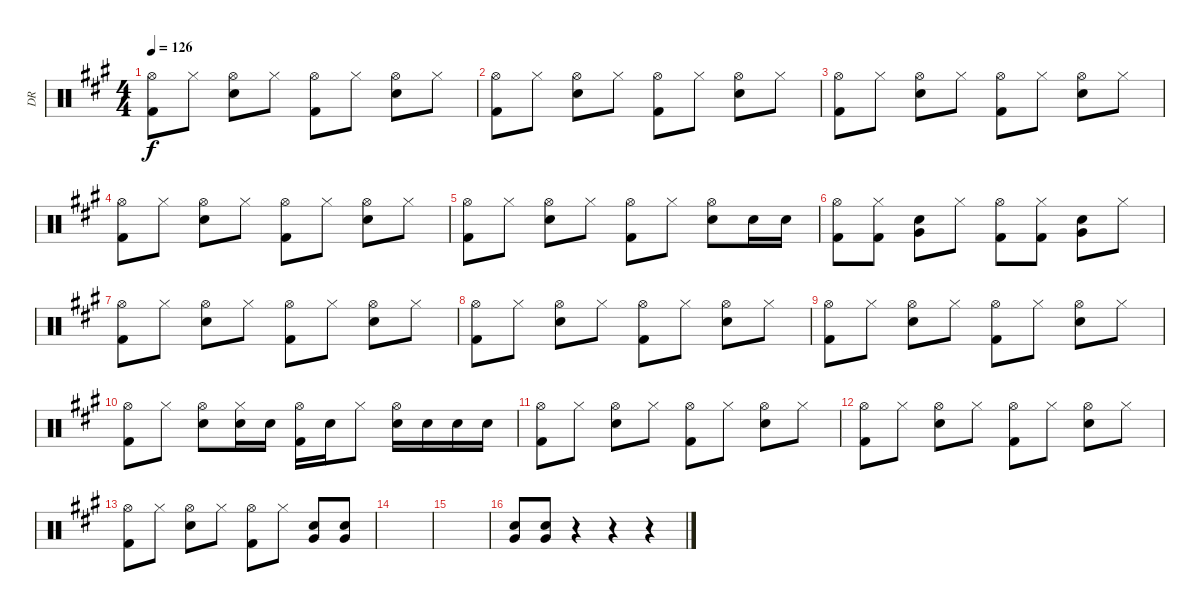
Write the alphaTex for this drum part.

\track ("DR" "DR") {instrument percussion}
\staff {score}
\articulation defaults
\ts (4 4)
\tempo 126
\clef neutral
\ks f#minor
("Hi-Hat (open)" "Kick (hit) 2").8{dy f} "Hi-Hat (closed)".8 ("Hi-Hat (open)" "Electric Snare (hit)").8 "Hi-Hat (closed)".8 ("Hi-Hat (open)" "Kick (hit) 2").8 "Hi-Hat (closed)".8 ("Hi-Hat (open)" "Electric Snare (hit)").8 "Hi-Hat (closed)".8 |
("Hi-Hat (open)" "Kick (hit) 2").8 "Hi-Hat (closed)".8 ("Hi-Hat (open)" "Electric Snare (hit)").8 "Hi-Hat (closed)".8 ("Hi-Hat (open)" "Kick (hit) 2").8 "Hi-Hat (closed)".8 ("Hi-Hat (open)" "Electric Snare (hit)").8 "Hi-Hat (closed)".8 |
("Hi-Hat (open)" "Kick (hit) 2").8 "Hi-Hat (closed)".8 ("Hi-Hat (open)" "Electric Snare (hit)").8 "Hi-Hat (closed)".8 ("Hi-Hat (open)" "Kick (hit) 2").8 "Hi-Hat (closed)".8 ("Hi-Hat (open)" "Electric Snare (hit)").8 "Hi-Hat (closed)".8 |
("Hi-Hat (open)" "Kick (hit) 2").8 "Hi-Hat (closed)".8 ("Hi-Hat (open)" "Electric Snare (hit)").8 "Hi-Hat (closed)".8 ("Hi-Hat (open)" "Kick (hit) 2").8 "Hi-Hat (closed)".8 ("Hi-Hat (open)" "Electric Snare (hit)").8 "Hi-Hat (closed)".8 |
("Hi-Hat (open)" "Kick (hit) 2").8 "Hi-Hat (closed)".8 ("Hi-Hat (open)" "Electric Snare (hit)").8 "Hi-Hat (closed)".8 ("Hi-Hat (open)" "Kick (hit) 2").8 "Hi-Hat (closed)".8 ("Hi-Hat (open)" "Electric Snare (hit)").8 "Electric Snare (hit)".16 "Electric Snare (hit)".16 |
("Hi-Hat (open)" "Kick (hit) 2").8 ("Hi-Hat (closed)" "Kick (hit) 2").8 ("Very Low Tom (hit)" "Electric Snare (hit)").8 "Hi-Hat (closed)".8 ("Hi-Hat (open)" "Kick (hit) 2").8 ("Hi-Hat (closed)" "Kick (hit) 2").8 ("Very Low Tom (hit)" "Electric Snare (hit)").8 "Hi-Hat (closed)".8 |
("Hi-Hat (open)" "Kick (hit) 2").8 "Hi-Hat (closed)".8 ("Hi-Hat (open)" "Electric Snare (hit)").8 "Hi-Hat (closed)".8 ("Hi-Hat (open)" "Kick (hit) 2").8 "Hi-Hat (closed)".8 ("Hi-Hat (open)" "Electric Snare (hit)").8 "Hi-Hat (closed)".8 |
("Hi-Hat (open)" "Kick (hit) 2").8 "Hi-Hat (closed)".8 ("Hi-Hat (open)" "Electric Snare (hit)").8 "Hi-Hat (closed)".8 ("Hi-Hat (open)" "Kick (hit) 2").8 "Hi-Hat (closed)".8 ("Hi-Hat (open)" "Electric Snare (hit)").8 "Hi-Hat (closed)".8 |
("Hi-Hat (open)" "Kick (hit) 2").8 "Hi-Hat (closed)".8 ("Hi-Hat (open)" "Electric Snare (hit)").8 "Hi-Hat (closed)".8 ("Hi-Hat (open)" "Kick (hit) 2").8 "Hi-Hat (closed)".8 ("Hi-Hat (open)" "Electric Snare (hit)").8 "Hi-Hat (closed)".8 |
("Hi-Hat (open)" "Kick (hit) 2").8 "Hi-Hat (closed)".8 ("Hi-Hat (open)" "Electric Snare (hit)").8 ("Hi-Hat (closed)" "Electric Snare (hit)").16 "Electric Snare (hit)".16 ("Hi-Hat (open)" "Kick (hit) 2").16 "Electric Snare (hit)".16 "Hi-Hat (closed)".8 ("Hi-Hat (open)" "Electric Snare (hit)").16 "Electric Snare (hit)".16 "Electric Snare (hit)".16 "Electric Snare (hit)".16 |
("Hi-Hat (open)" "Kick (hit) 2").8 "Hi-Hat (closed)".8 ("Hi-Hat (open)" "Electric Snare (hit)").8 "Hi-Hat (closed)".8 ("Hi-Hat (open)" "Kick (hit) 2").8 "Hi-Hat (closed)".8 ("Hi-Hat (open)" "Electric Snare (hit)").8 "Hi-Hat (closed)".8 |
("Hi-Hat (open)" "Kick (hit) 2").8 "Hi-Hat (closed)".8 ("Hi-Hat (open)" "Electric Snare (hit)").8 "Hi-Hat (closed)".8 ("Hi-Hat (open)" "Kick (hit) 2").8 "Hi-Hat (closed)".8 ("Hi-Hat (open)" "Electric Snare (hit)").8 "Hi-Hat (closed)".8 |
("Hi-Hat (open)" "Kick (hit) 2").8 "Hi-Hat (closed)".8 ("Hi-Hat (open)" "Electric Snare (hit)").8 "Hi-Hat (closed)".8 ("Hi-Hat (open)" "Kick (hit) 2").8 "Hi-Hat (closed)".8 ("Very Low Tom (hit)" "Electric Snare (hit)").8 ("Very Low Tom (hit)" "Electric Snare (hit)").8 |
|
|
("Very Low Tom (hit)" "Electric Snare (hit)").8 ("Very Low Tom (hit)" "Electric Snare (hit)").8 r.4 r.4 r.4
